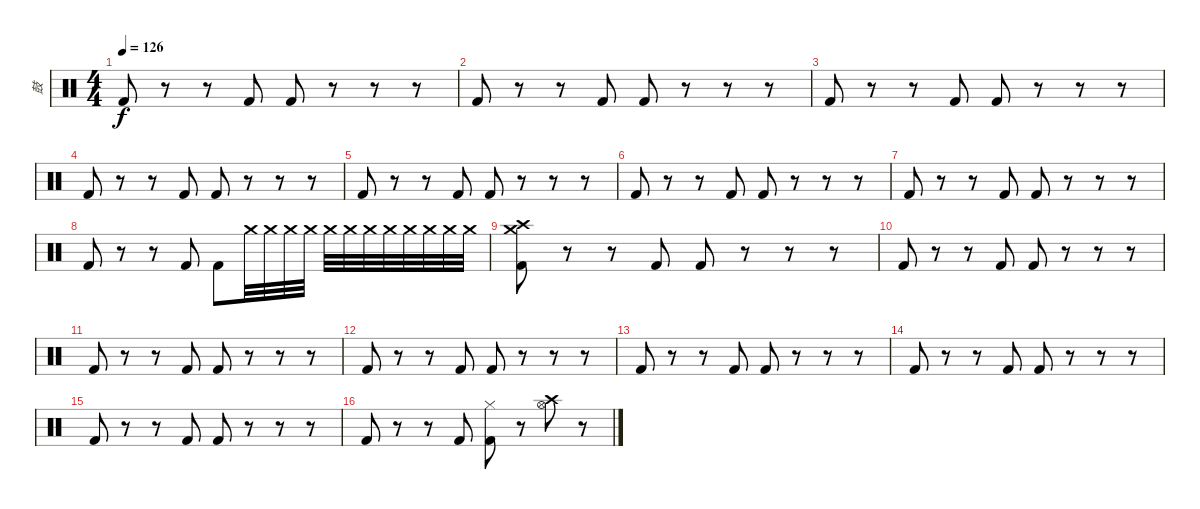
\track ("鼓" "鼓") {instrument percussion}
\staff {score}
\articulation defaults
\ts (4 4)
\tempo 126
\clef neutral
\ks c "Kick (hit) 2".8{dy f}
r.8 r.8 "Kick (hit) 2".8 "Kick (hit) 2".8 r.8 r.8 r.8 |
"Kick (hit) 2".8 r.8 r.8 "Kick (hit) 2".8 "Kick (hit) 2".8 r.8 r.8 r.8 |
"Kick (hit) 2".8 r.8 r.8 "Kick (hit) 2".8 "Kick (hit) 2".8 r.8 r.8 r.8 |
"Kick (hit) 2".8 r.8 r.8 "Kick (hit) 2".8 "Kick (hit) 2".8 r.8 r.8 r.8 |
"Kick (hit) 2".8 r.8 r.8 "Kick (hit) 2".8 "Kick (hit) 2".8 r.8 r.8 r.8 |
"Kick (hit) 2".8 r.8 r.8 "Kick (hit) 2".8 "Kick (hit) 2".8 r.8 r.8 r.8 |
"Kick (hit) 2".8 r.8 r.8 "Kick (hit) 2".8 "Kick (hit) 2".8 r.8 r.8 r.8 |
"Kick (hit) 2".8 r.8 r.8 "Kick (hit) 2".8 "Kick (hit) 2".8 "Crash medium (hit)".32{volume 8} "Crash medium (hit)".32 "Crash medium (hit)".32{volume 10} "Crash medium (hit)".32 "Crash medium (hit)".32{volume 11} "Crash medium (hit)".32 "Crash medium (hit)".32{volume 12} "Crash medium (hit)".32 "Crash medium (hit)".32{volume 14} "Crash medium (hit)".32 "Crash medium (hit)".32{volume 16} "Crash medium (hit)".32 |
("Crash medium (hit)" "Crash high (hit)" "Kick (hit) 2").8 r.8 r.8 "Kick (hit) 2".8 "Kick (hit) 2".8 r.8 r.8 r.8 |
"Kick (hit) 2".8 r.8 r.8 "Kick (hit) 2".8 "Kick (hit) 2".8 r.8 r.8 r.8 |
"Kick (hit) 2".8 r.8 r.8 "Kick (hit) 2".8 "Kick (hit) 2".8 r.8 r.8 r.8 |
"Kick (hit) 2".8 r.8 r.8 "Kick (hit) 2".8 "Kick (hit) 2".8 r.8 r.8 r.8 |
"Kick (hit) 2".8 r.8 r.8 "Kick (hit) 2".8 "Kick (hit) 2".8 r.8 r.8 r.8 |
"Kick (hit) 2".8 r.8 r.8 "Kick (hit) 2".8 "Kick (hit) 2".8 r.8 r.8 r.8 |
"Kick (hit) 2".8 r.8 r.8 "Kick (hit) 2".8 "Kick (hit) 2".8 r.8 r.8 r.8 |
"Kick (hit) 2".8 r.8 r.8 "Kick (hit) 2".8 ("Hi-Hat (closed)" "Kick (hit) 2").8 r.8 ("Hi-Hat (open)" "Crash high (hit)").8 r.8
